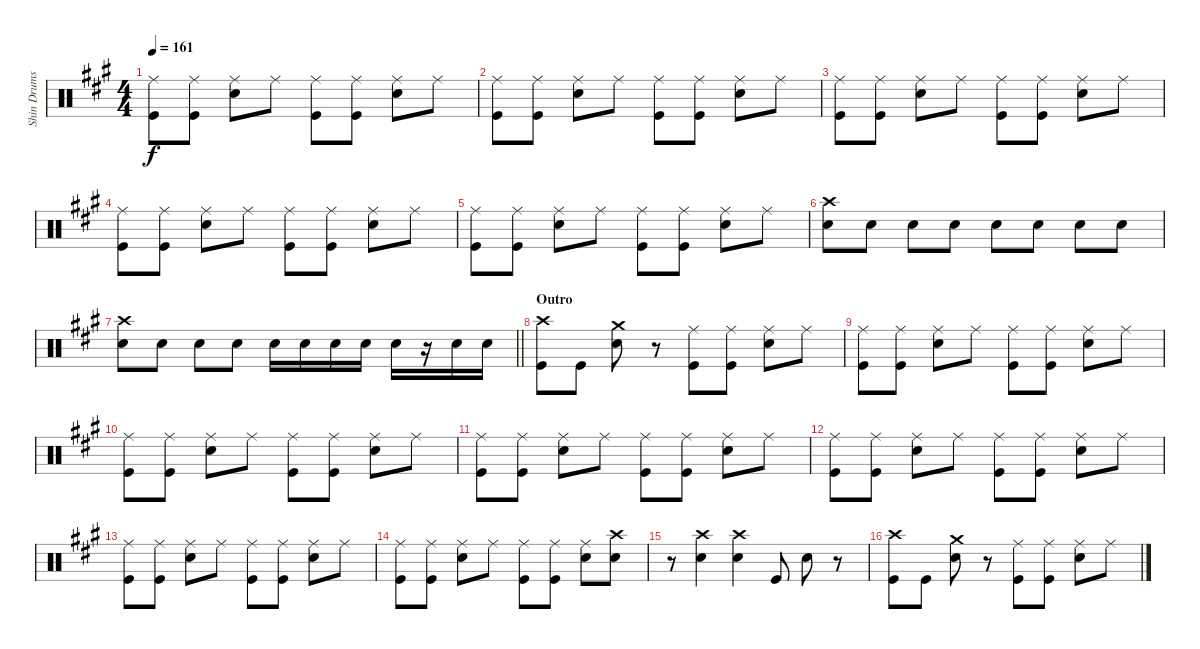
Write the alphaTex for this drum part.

\track ("Shin Drums" "Shin Drums") {instrument percussion}
\staff {score}
\articulation defaults
\ts (4 4)
\tempo 161
\clef neutral
\ks a
("Ride (middle)" "Kick (hit)").8{dy f} ("Ride (middle)" "Kick (hit)").8 ("Ride (middle)" "Snare (hit) 2").8 "Ride (middle)".8 ("Ride (middle)" "Kick (hit)").8 ("Ride (middle)" "Kick (hit)").8 ("Ride (middle)" "Snare (hit) 2").8 "Ride (middle)".8 |
("Ride (middle)" "Kick (hit)").8 ("Ride (middle)" "Kick (hit)").8 ("Ride (middle)" "Snare (hit) 2").8 "Ride (middle)".8 ("Ride (middle)" "Kick (hit)").8 ("Ride (middle)" "Kick (hit)").8 ("Ride (middle)" "Snare (hit) 2").8 "Ride (middle)".8 |
("Ride (middle)" "Kick (hit)").8 ("Ride (middle)" "Kick (hit)").8 ("Ride (middle)" "Snare (hit) 2").8 "Ride (middle)".8 ("Ride (middle)" "Kick (hit)").8 ("Ride (middle)" "Kick (hit)").8 ("Ride (middle)" "Snare (hit) 2").8 "Ride (middle)".8 |
("Ride (middle)" "Kick (hit)").8 ("Ride (middle)" "Kick (hit)").8 ("Ride (middle)" "Snare (hit) 2").8 "Ride (middle)".8 ("Ride (middle)" "Kick (hit)").8 ("Ride (middle)" "Kick (hit)").8 ("Ride (middle)" "Snare (hit) 2").8 "Ride (middle)".8 |
("Ride (middle)" "Kick (hit)").8 ("Ride (middle)" "Kick (hit)").8 ("Ride (middle)" "Snare (hit) 2").8 "Ride (middle)".8 ("Ride (middle)" "Kick (hit)").8 ("Ride (middle)" "Kick (hit)").8 ("Ride (middle)" "Snare (hit) 2").8 "Ride (middle)".8 |
("Crash high (hit)" "Snare (hit) 2").8 "Snare (hit) 2".8 "Snare (hit) 2".8 "Snare (hit) 2".8 "Snare (hit) 2".8 "Snare (hit) 2".8 "Snare (hit) 2".8 "Snare (hit) 2".8 |
\barLineRight lightlight
("Crash high (hit)" "Snare (hit) 2").8 "Snare (hit) 2".8 "Snare (hit) 2".8 "Snare (hit) 2".8 "Snare (hit) 2".16 "Snare (hit) 2".16 "Snare (hit) 2".16 "Snare (hit) 2".16 "Snare (hit) 2".16 r.16 "Snare (hit) 2".16 "Snare (hit) 2".16 |
\section ("" "Outro")
("Crash high (hit)" "Kick (hit)").8 "Kick (hit)".8 ("Crash medium (hit)" "Snare (hit) 2").8 r.8 ("Ride (middle)" "Kick (hit)").8 ("Ride (middle)" "Kick (hit)").8 ("Ride (middle)" "Snare (hit) 2").8 "Ride (middle)".8 |
("Ride (middle)" "Kick (hit)").8 ("Ride (middle)" "Kick (hit)").8 ("Ride (middle)" "Snare (hit) 2").8 "Ride (middle)".8 ("Ride (middle)" "Kick (hit)").8 ("Ride (middle)" "Kick (hit)").8 ("Ride (middle)" "Snare (hit) 2").8 "Ride (middle)".8 |
("Ride (middle)" "Kick (hit)").8 ("Ride (middle)" "Kick (hit)").8 ("Ride (middle)" "Snare (hit) 2").8 "Ride (middle)".8 ("Ride (middle)" "Kick (hit)").8 ("Ride (middle)" "Kick (hit)").8 ("Ride (middle)" "Snare (hit) 2").8 "Ride (middle)".8 |
("Ride (middle)" "Kick (hit)").8 ("Ride (middle)" "Kick (hit)").8 ("Ride (middle)" "Snare (hit) 2").8 "Ride (middle)".8 ("Ride (middle)" "Kick (hit)").8 ("Ride (middle)" "Kick (hit)").8 ("Ride (middle)" "Snare (hit) 2").8 "Ride (middle)".8 |
("Ride (middle)" "Kick (hit)").8 ("Ride (middle)" "Kick (hit)").8 ("Ride (middle)" "Snare (hit) 2").8 "Ride (middle)".8 ("Ride (middle)" "Kick (hit)").8 ("Ride (middle)" "Kick (hit)").8 ("Ride (middle)" "Snare (hit) 2").8 "Ride (middle)".8 |
("Ride (middle)" "Kick (hit)").8 ("Ride (middle)" "Kick (hit)").8 ("Ride (middle)" "Snare (hit) 2").8 "Ride (middle)".8 ("Ride (middle)" "Kick (hit)").8 ("Ride (middle)" "Kick (hit)").8 ("Ride (middle)" "Snare (hit) 2").8 "Ride (middle)".8 |
("Ride (middle)" "Kick (hit)").8 ("Ride (middle)" "Kick (hit)").8 ("Ride (middle)" "Snare (hit) 2").8 "Ride (middle)".8 ("Ride (middle)" "Kick (hit)").8 ("Ride (middle)" "Kick (hit)").8 ("Ride (middle)" "Snare (hit) 2").8 ("Crash high (hit)" "Snare (hit) 2").8 |
r.8 ("Crash high (hit)" "Snare (hit) 2").4 ("Crash high (hit)" "Snare (hit) 2").4 "Kick (hit)".8 "Snare (hit) 2".8 r.8 |
("Crash high (hit)" "Kick (hit)").8 "Kick (hit)".8 ("Crash medium (hit)" "Snare (hit) 2").8 r.8 ("Ride (middle)" "Kick (hit)").8 ("Ride (middle)" "Kick (hit)").8 ("Ride (middle)" "Snare (hit) 2").8 "Ride (middle)".8
